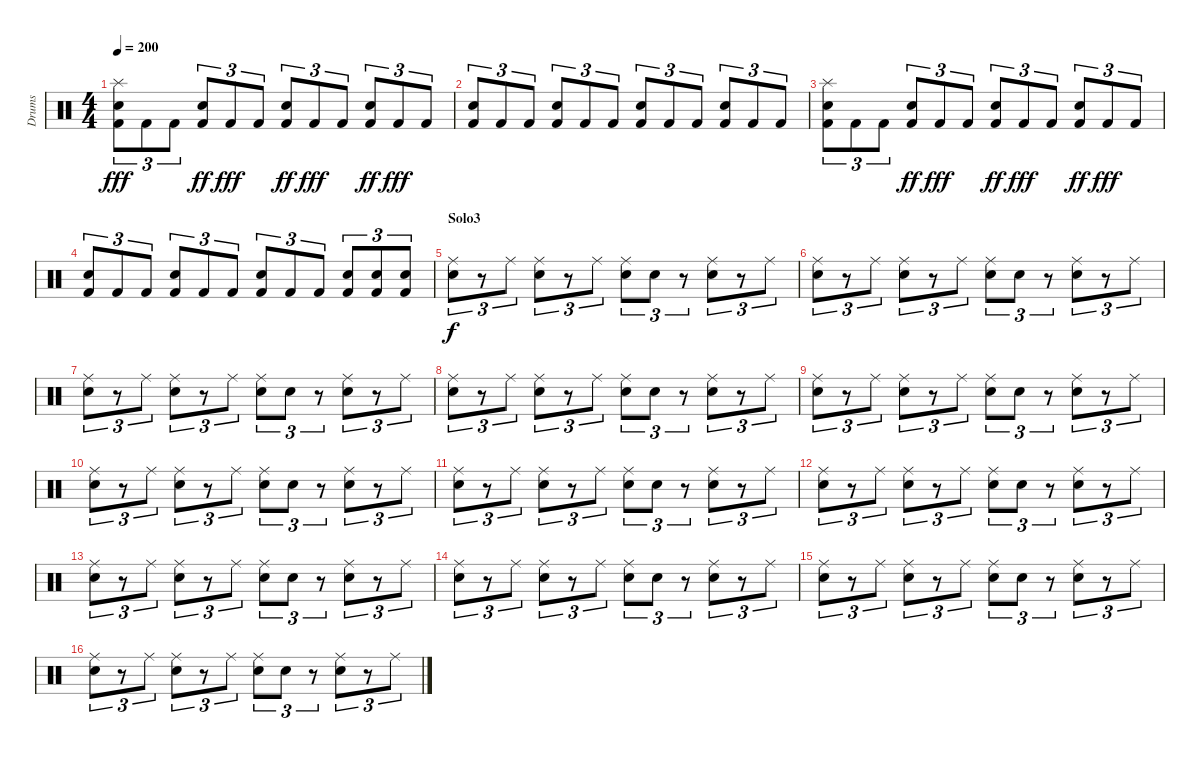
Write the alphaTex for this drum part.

\track ("Drums" "Drums") {instrument percussion}
\staff {score}
\articulation defaults
\ts (4 4)
\tempo 200
\clef neutral
\ks c
("Kick (hit) 2" "Snare (hit) 2" "Splash (hit)").8{tu (3 2) dy fff} "Kick (hit) 2".8{tu (3 2)} "Kick (hit) 2".8{tu (3 2)} ("Kick (hit) 2" "Electric Snare (hit)").8{tu (3 2) dy ff} "Kick (hit) 2".8{tu (3 2) dy fff} "Kick (hit) 2".8{tu (3 2)} ("Kick (hit) 2" "Electric Snare (hit)").8{tu (3 2) dy ff} "Kick (hit) 2".8{tu (3 2) dy fff} "Kick (hit) 2".8{tu (3 2)} ("Kick (hit) 2" "Electric Snare (hit)").8{tu (3 2) dy ff} "Kick (hit) 2".8{tu (3 2) dy fff} "Kick (hit) 2".8{tu (3 2)} |
("Electric Snare (hit)" "Kick (hit) 2").8{tu (3 2)} "Kick (hit) 2".8{tu (3 2)} "Kick (hit) 2".8{tu (3 2)} ("Electric Snare (hit)" "Kick (hit) 2").8{tu (3 2)} "Kick (hit) 2".8{tu (3 2)} "Kick (hit) 2".8{tu (3 2)} ("Electric Snare (hit)" "Kick (hit) 2").8{tu (3 2)} "Kick (hit) 2".8{tu (3 2)} "Kick (hit) 2".8{tu (3 2)} ("Electric Snare (hit)" "Kick (hit) 2").8{tu (3 2)} "Kick (hit) 2".8{tu (3 2)} "Kick (hit) 2".8{tu (3 2)} |
("Kick (hit) 2" "Snare (hit) 2" "Splash (hit)").8{tu (3 2)} "Kick (hit) 2".8{tu (3 2)} "Kick (hit) 2".8{tu (3 2)} ("Kick (hit) 2" "Electric Snare (hit)").8{tu (3 2) dy ff} "Kick (hit) 2".8{tu (3 2) dy fff} "Kick (hit) 2".8{tu (3 2)} ("Kick (hit) 2" "Electric Snare (hit)").8{tu (3 2) dy ff} "Kick (hit) 2".8{tu (3 2) dy fff} "Kick (hit) 2".8{tu (3 2)} ("Kick (hit) 2" "Electric Snare (hit)").8{tu (3 2) dy ff} "Kick (hit) 2".8{tu (3 2) dy fff} "Kick (hit) 2".8{tu (3 2)} |
("Electric Snare (hit)" "Kick (hit) 2").8{tu (3 2)} "Kick (hit) 2".8{tu (3 2)} "Kick (hit) 2".8{tu (3 2)} ("Electric Snare (hit)" "Kick (hit) 2").8{tu (3 2)} "Kick (hit) 2".8{tu (3 2)} "Kick (hit) 2".8{tu (3 2)} ("Electric Snare (hit)" "Kick (hit) 2").8{tu (3 2)} "Kick (hit) 2".8{tu (3 2)} "Kick (hit) 2".8{tu (3 2)} ("Electric Snare (hit)" "Kick (hit) 2").8{tu (3 2)} ("Electric Snare (hit)" "Kick (hit) 2").8{tu (3 2)} ("Electric Snare (hit)" "Kick (hit) 2").8{tu (3 2)} |
\section ("" "Solo3")
("Snare (hit) 2" "Ride (middle)").8{tu (3 2) dy f} r.8{tu (3 2)} "Ride (middle)".8{tu (3 2)} ("Snare (hit) 2" "Ride (middle)").8{tu (3 2)} r.8{tu (3 2)} "Ride (middle)".8{tu (3 2)} ("Snare (hit) 2" "Ride (middle)").8{tu (3 2)} "Snare (hit) 2".8{tu (3 2)} r.8{tu (3 2)} ("Snare (hit) 2" "Ride (middle)").8{tu (3 2)} r.8{tu (3 2)} "Ride (middle)".8{tu (3 2)} |
("Snare (hit) 2" "Ride (middle)").8{tu (3 2)} r.8{tu (3 2)} "Ride (middle)".8{tu (3 2)} ("Snare (hit) 2" "Ride (middle)").8{tu (3 2)} r.8{tu (3 2)} "Ride (middle)".8{tu (3 2)} ("Snare (hit) 2" "Ride (middle)").8{tu (3 2)} "Snare (hit) 2".8{tu (3 2)} r.8{tu (3 2)} ("Snare (hit) 2" "Ride (middle)").8{tu (3 2)} r.8{tu (3 2)} "Ride (middle)".8{tu (3 2)} |
("Snare (hit) 2" "Ride (middle)").8{tu (3 2)} r.8{tu (3 2)} "Ride (middle)".8{tu (3 2)} ("Snare (hit) 2" "Ride (middle)").8{tu (3 2)} r.8{tu (3 2)} "Ride (middle)".8{tu (3 2)} ("Snare (hit) 2" "Ride (middle)").8{tu (3 2)} "Snare (hit) 2".8{tu (3 2)} r.8{tu (3 2)} ("Snare (hit) 2" "Ride (middle)").8{tu (3 2)} r.8{tu (3 2)} "Ride (middle)".8{tu (3 2)} |
("Snare (hit) 2" "Ride (middle)").8{tu (3 2)} r.8{tu (3 2)} "Ride (middle)".8{tu (3 2)} ("Snare (hit) 2" "Ride (middle)").8{tu (3 2)} r.8{tu (3 2)} "Ride (middle)".8{tu (3 2)} ("Snare (hit) 2" "Ride (middle)").8{tu (3 2)} "Snare (hit) 2".8{tu (3 2)} r.8{tu (3 2)} ("Snare (hit) 2" "Ride (middle)").8{tu (3 2)} r.8{tu (3 2)} "Ride (middle)".8{tu (3 2)} |
("Snare (hit) 2" "Ride (middle)").8{tu (3 2)} r.8{tu (3 2)} "Ride (middle)".8{tu (3 2)} ("Snare (hit) 2" "Ride (middle)").8{tu (3 2)} r.8{tu (3 2)} "Ride (middle)".8{tu (3 2)} ("Snare (hit) 2" "Ride (middle)").8{tu (3 2)} "Snare (hit) 2".8{tu (3 2)} r.8{tu (3 2)} ("Snare (hit) 2" "Ride (middle)").8{tu (3 2)} r.8{tu (3 2)} "Ride (middle)".8{tu (3 2)} |
("Snare (hit) 2" "Ride (middle)").8{tu (3 2)} r.8{tu (3 2)} "Ride (middle)".8{tu (3 2)} ("Snare (hit) 2" "Ride (middle)").8{tu (3 2)} r.8{tu (3 2)} "Ride (middle)".8{tu (3 2)} ("Snare (hit) 2" "Ride (middle)").8{tu (3 2)} "Snare (hit) 2".8{tu (3 2)} r.8{tu (3 2)} ("Snare (hit) 2" "Ride (middle)").8{tu (3 2)} r.8{tu (3 2)} "Ride (middle)".8{tu (3 2)} |
("Snare (hit) 2" "Ride (middle)").8{tu (3 2)} r.8{tu (3 2)} "Ride (middle)".8{tu (3 2)} ("Snare (hit) 2" "Ride (middle)").8{tu (3 2)} r.8{tu (3 2)} "Ride (middle)".8{tu (3 2)} ("Snare (hit) 2" "Ride (middle)").8{tu (3 2)} "Snare (hit) 2".8{tu (3 2)} r.8{tu (3 2)} ("Snare (hit) 2" "Ride (middle)").8{tu (3 2)} r.8{tu (3 2)} "Ride (middle)".8{tu (3 2)} |
("Snare (hit) 2" "Ride (middle)").8{tu (3 2)} r.8{tu (3 2)} "Ride (middle)".8{tu (3 2)} ("Snare (hit) 2" "Ride (middle)").8{tu (3 2)} r.8{tu (3 2)} "Ride (middle)".8{tu (3 2)} ("Snare (hit) 2" "Ride (middle)").8{tu (3 2)} "Snare (hit) 2".8{tu (3 2)} r.8{tu (3 2)} ("Snare (hit) 2" "Ride (middle)").8{tu (3 2)} r.8{tu (3 2)} "Ride (middle)".8{tu (3 2)} |
("Snare (hit) 2" "Ride (middle)").8{tu (3 2)} r.8{tu (3 2)} "Ride (middle)".8{tu (3 2)} ("Snare (hit) 2" "Ride (middle)").8{tu (3 2)} r.8{tu (3 2)} "Ride (middle)".8{tu (3 2)} ("Snare (hit) 2" "Ride (middle)").8{tu (3 2)} "Snare (hit) 2".8{tu (3 2)} r.8{tu (3 2)} ("Snare (hit) 2" "Ride (middle)").8{tu (3 2)} r.8{tu (3 2)} "Ride (middle)".8{tu (3 2)} |
("Snare (hit) 2" "Ride (middle)").8{tu (3 2)} r.8{tu (3 2)} "Ride (middle)".8{tu (3 2)} ("Snare (hit) 2" "Ride (middle)").8{tu (3 2)} r.8{tu (3 2)} "Ride (middle)".8{tu (3 2)} ("Snare (hit) 2" "Ride (middle)").8{tu (3 2)} "Snare (hit) 2".8{tu (3 2)} r.8{tu (3 2)} ("Snare (hit) 2" "Ride (middle)").8{tu (3 2)} r.8{tu (3 2)} "Ride (middle)".8{tu (3 2)} |
("Snare (hit) 2" "Ride (middle)").8{tu (3 2)} r.8{tu (3 2)} "Ride (middle)".8{tu (3 2)} ("Snare (hit) 2" "Ride (middle)").8{tu (3 2)} r.8{tu (3 2)} "Ride (middle)".8{tu (3 2)} ("Snare (hit) 2" "Ride (middle)").8{tu (3 2)} "Snare (hit) 2".8{tu (3 2)} r.8{tu (3 2)} ("Snare (hit) 2" "Ride (middle)").8{tu (3 2)} r.8{tu (3 2)} "Ride (middle)".8{tu (3 2)} |
("Snare (hit) 2" "Ride (middle)").8{tu (3 2)} r.8{tu (3 2)} "Ride (middle)".8{tu (3 2)} ("Snare (hit) 2" "Ride (middle)").8{tu (3 2)} r.8{tu (3 2)} "Ride (middle)".8{tu (3 2)} ("Snare (hit) 2" "Ride (middle)").8{tu (3 2)} "Snare (hit) 2".8{tu (3 2)} r.8{tu (3 2)} ("Snare (hit) 2" "Ride (middle)").8{tu (3 2)} r.8{tu (3 2)} "Ride (middle)".8{tu (3 2)}
